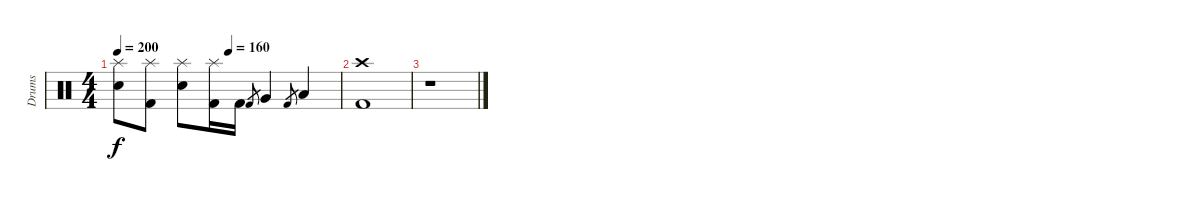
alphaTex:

\track ("Drums" "Drums") {instrument percussion}
\staff {score}
\articulation defaults
\ts (4 4)
\tempo 200
\tempo (160 0.5)
\clef neutral
\ks c
("Splash (hit)" "Electric Snare (hit)").8{dy f} ("Splash (hit)" "Kick (hit) 2").8 ("Splash (hit)" "Electric Snare (hit)").8 ("Splash (hit)" "Kick (hit) 2").16 "Kick (hit) 2".16 "Kick (hit) 2".8{gr} "Very Low Tom (hit)".4 "Kick (hit) 2".8{gr} "Low Tom (hit)".4 |
("Crash high (hit)" "Kick (hit) 2").1 |
r.1
